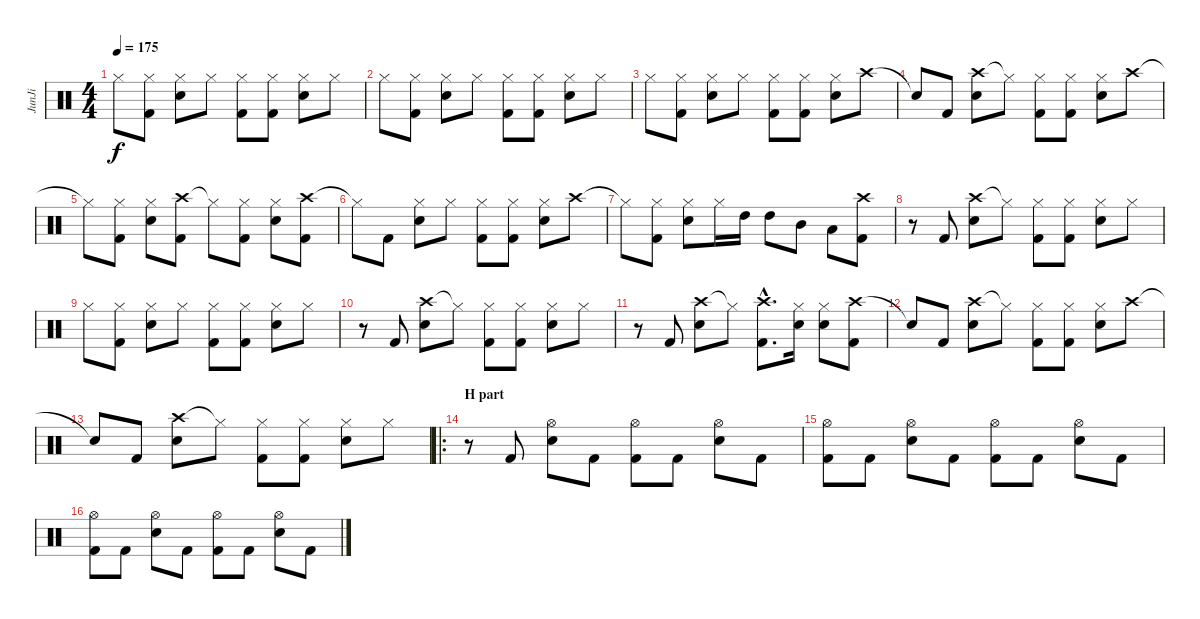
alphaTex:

\track ("JunJi" "JunJi") {instrument percussion}
\staff {score}
\articulation defaults
\ts (4 4)
\tempo 175
\clef neutral
\ks c "Hi-Hat (closed)".8{dy f}
("Hi-Hat (closed)" "Kick (hit) 2").8 ("Hi-Hat (closed)" "Snare (hit) 2").8 "Hi-Hat (closed)".8 ("Hi-Hat (closed)" "Kick (hit) 2").8 ("Hi-Hat (closed)" "Kick (hit) 2").8 ("Hi-Hat (closed)" "Snare (hit) 2").8 "Hi-Hat (closed)".8 |
"Hi-Hat (closed)".8 ("Hi-Hat (closed)" "Kick (hit) 2").8 ("Hi-Hat (closed)" "Snare (hit) 2").8 "Hi-Hat (closed)".8 ("Hi-Hat (closed)" "Kick (hit) 2").8 ("Hi-Hat (closed)" "Kick (hit) 2").8 ("Hi-Hat (closed)" "Snare (hit) 2").8 "Hi-Hat (closed)".8 |
"Hi-Hat (closed)".8 ("Hi-Hat (closed)" "Kick (hit) 2").8 ("Hi-Hat (closed)" "Snare (hit) 2").8 "Hi-Hat (closed)".8 ("Hi-Hat (closed)" "Kick (hit) 2").8 ("Hi-Hat (closed)" "Kick (hit) 2").8 ("Hi-Hat (closed)" "Snare (hit) 2").8 "Crash high (hit)".8 |
"Snare (hit)"{t}.8 "Kick (hit) 2".8 ("Crash high (hit)" "Snare (hit) 2").8 "Hi-Hat (closed)"{t}.8 ("Hi-Hat (closed)" "Kick (hit) 2").8 ("Hi-Hat (closed)" "Kick (hit) 2").8 ("Hi-Hat (closed)" "Snare (hit) 2").8 "Crash high (hit)".8 |
"Hi-Hat (closed)"{t}.8 ("Hi-Hat (closed)" "Kick (hit) 2").8 ("Hi-Hat (closed)" "Snare (hit) 2").8 ("Crash high (hit)" "Kick (hit) 2").8 "Hi-Hat (closed)"{t}.8 ("Hi-Hat (closed)" "Kick (hit) 2").8 ("Hi-Hat (closed)" "Snare (hit) 2").8 ("Crash high (hit)" "Kick (hit) 2").8 |
"Hi-Hat (closed)"{t}.8 "Kick (hit) 2".8 ("Hi-Hat (closed)" "Snare (hit) 2").8 "Hi-Hat (closed)".8 ("Hi-Hat (closed)" "Kick (hit) 2").8 ("Hi-Hat (closed)" "Kick (hit) 2").8 ("Hi-Hat (closed)" "Snare (hit) 2").8 "Crash high (hit)".8 |
"Hi-Hat (closed)"{t}.8 ("Hi-Hat (closed)" "Kick (hit) 2").8 ("Hi-Hat (closed)" "Snare (hit) 2").8 "Hi-Hat (closed)".16 "High Tom (hit)".16 "High Tom (hit)".8 "Mid Tom (hit)".8 "Low Tom (hit)".8 ("Crash high (hit)" "Kick (hit) 2").8 |
r.8 "Kick (hit) 2".8 ("Crash high (hit)" "Snare (hit) 2").8 "Hi-Hat (closed)"{t}.8 ("Hi-Hat (closed)" "Kick (hit) 2").8 ("Hi-Hat (closed)" "Kick (hit) 2").8 ("Hi-Hat (closed)" "Snare (hit) 2").8 "Hi-Hat (closed)".8 |
"Hi-Hat (closed)".8 ("Hi-Hat (closed)" "Kick (hit) 2").8 ("Hi-Hat (closed)" "Snare (hit) 2").8 "Hi-Hat (closed)".8 ("Hi-Hat (closed)" "Kick (hit) 2").8 ("Hi-Hat (closed)" "Kick (hit) 2").8 ("Hi-Hat (closed)" "Snare (hit) 2").8 "Hi-Hat (closed)".8 |
r.8 "Kick (hit) 2".8 ("Crash high (hit)" "Snare (hit) 2").8 "Hi-Hat (closed)"{t}.8 ("Hi-Hat (closed)" "Kick (hit) 2").8 ("Hi-Hat (closed)" "Kick (hit) 2").8 ("Hi-Hat (closed)" "Snare (hit) 2").8 "Hi-Hat (closed)".8 |
r.8 "Kick (hit) 2".8 ("Crash high (hit)" "Snare (hit) 2").8 "Hi-Hat (closed)"{t}.8 ("Crash high (hit)"{hac} "Kick (hit) 2"{hac}).8{d} ("Hi-Hat (closed)" "Snare (hit) 2").16 ("Hi-Hat (closed)" "Snare (hit) 2").8 ("Crash high (hit)" "Kick (hit) 2").8 |
"Snare (hit)"{t}.8 "Kick (hit) 2".8 ("Crash high (hit)" "Snare (hit) 2").8 "Hi-Hat (closed)"{t}.8 ("Hi-Hat (closed)" "Kick (hit) 2").8 ("Hi-Hat (closed)" "Kick (hit) 2").8 ("Hi-Hat (closed)" "Snare (hit) 2").8 "Crash high (hit)".8 |
"Snare (hit)"{t}.8 "Kick (hit) 2".8 ("Crash high (hit)" "Snare (hit) 2").8 "Hi-Hat (closed)"{t}.8 ("Hi-Hat (closed)" "Kick (hit) 2").8 ("Hi-Hat (closed)" "Kick (hit) 2").8 ("Hi-Hat (closed)" "Snare (hit) 2").8 "Hi-Hat (closed)".8 |
\ro
\section ("" "H part")
r.8 "Kick (hit) 2".8 ("Hi-Hat (open)" "Snare (hit) 2").8 "Kick (hit) 2".8 ("Hi-Hat (open)" "Kick (hit) 2").8 "Kick (hit) 2".8 ("Hi-Hat (open)" "Snare (hit) 2").8 "Kick (hit) 2".8 |
("Hi-Hat (open)" "Kick (hit) 2").8 "Kick (hit) 2".8 ("Hi-Hat (open)" "Snare (hit) 2").8 "Kick (hit) 2".8 ("Hi-Hat (open)" "Kick (hit) 2").8 "Kick (hit) 2".8 ("Hi-Hat (open)" "Snare (hit) 2").8 "Kick (hit) 2".8 |
("Hi-Hat (open)" "Kick (hit) 2").8 "Kick (hit) 2".8 ("Hi-Hat (open)" "Snare (hit) 2").8 "Kick (hit) 2".8 ("Hi-Hat (open)" "Kick (hit) 2").8 "Kick (hit) 2".8 ("Hi-Hat (open)" "Snare (hit) 2").8 "Kick (hit) 2".8
